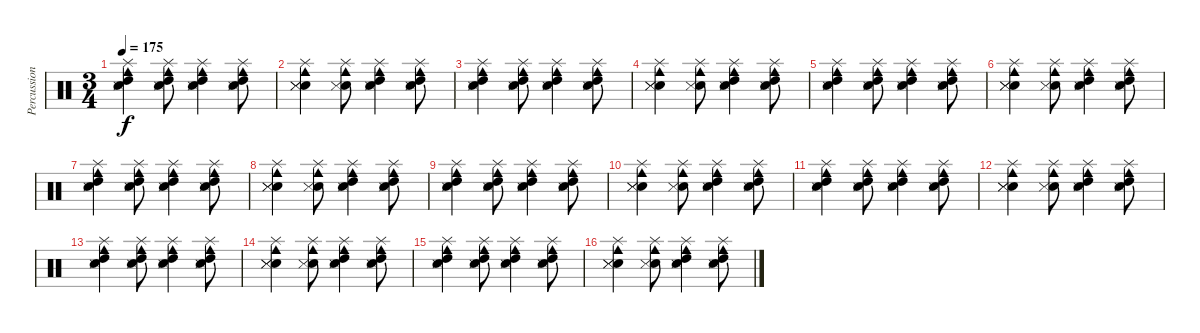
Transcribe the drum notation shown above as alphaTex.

\track ("Percussion" "Percussion") {instrument percussion}
\staff {score}
\articulation defaults
\ts (3 4)
\tempo 175
\clef neutral
\ks c
("Snare (hit) 2" "Snare (side stick) 3" "High Tom (hit)" "Splash (hit)" "Cowbell medium (hit)").4{dy f} ("Snare (hit) 2" "Snare (side stick) 3" "High Tom (hit)" "Splash (hit)" "Cowbell medium (hit)").8 ("Snare (hit) 2" "Snare (side stick) 3" "High Tom (hit)" "Splash (hit)" "Cowbell medium (hit)").4 ("Snare (hit) 2" "Snare (side stick) 3" "High Tom (hit)" "Splash (hit)" "Cowbell medium (hit)").8 |
("Snare (hit) 2" "Snare (side stick) 3" "Snare (side stick) 3" "Splash (hit)" "Cowbell medium (hit)").4 ("Snare (hit) 2" "Snare (side stick) 3" "Splash (hit)" "Cowbell medium (hit)").8 ("Snare (hit) 2" "Snare (side stick) 3" "High Tom (hit)" "Splash (hit)" "Cowbell medium (hit)").4 ("Snare (hit) 2" "Snare (side stick) 3" "High Tom (hit)" "Splash (hit)" "Cowbell medium (hit)").8 |
("Snare (hit) 2" "Snare (side stick) 3" "High Tom (hit)" "Splash (hit)" "Cowbell medium (hit)").4 ("Snare (hit) 2" "Snare (side stick) 3" "High Tom (hit)" "Splash (hit)" "Cowbell medium (hit)").8 ("Snare (hit) 2" "Snare (side stick) 3" "High Tom (hit)" "Splash (hit)" "Cowbell medium (hit)").4 ("Snare (hit) 2" "Snare (side stick) 3" "High Tom (hit)" "Splash (hit)" "Cowbell medium (hit)").8 |
("Snare (hit) 2" "Snare (side stick) 3" "Snare (side stick) 3" "Splash (hit)" "Cowbell medium (hit)").4 ("Snare (hit) 2" "Snare (side stick) 3" "Splash (hit)" "Cowbell medium (hit)").8 ("Snare (hit) 2" "Snare (side stick) 3" "High Tom (hit)" "Splash (hit)" "Cowbell medium (hit)").4 ("Snare (hit) 2" "Snare (side stick) 3" "High Tom (hit)" "Splash (hit)" "Cowbell medium (hit)").8 |
("Snare (hit) 2" "Snare (side stick) 3" "High Tom (hit)" "Splash (hit)" "Cowbell medium (hit)").4 ("Snare (hit) 2" "Snare (side stick) 3" "High Tom (hit)" "Splash (hit)" "Cowbell medium (hit)").8 ("Snare (hit) 2" "Snare (side stick) 3" "High Tom (hit)" "Splash (hit)" "Cowbell medium (hit)").4 ("Snare (hit) 2" "Snare (side stick) 3" "High Tom (hit)" "Splash (hit)" "Cowbell medium (hit)").8 |
("Snare (hit) 2" "Snare (side stick) 3" "Snare (side stick) 3" "Splash (hit)" "Cowbell medium (hit)").4 ("Snare (hit) 2" "Snare (side stick) 3" "Splash (hit)" "Cowbell medium (hit)").8 ("Snare (hit) 2" "Snare (side stick) 3" "High Tom (hit)" "Splash (hit)" "Cowbell medium (hit)").4 ("Snare (hit) 2" "Snare (side stick) 3" "High Tom (hit)" "Splash (hit)" "Cowbell medium (hit)").8 |
("Snare (hit) 2" "Snare (side stick) 3" "High Tom (hit)" "Splash (hit)" "Cowbell medium (hit)").4 ("Snare (hit) 2" "Snare (side stick) 3" "High Tom (hit)" "Splash (hit)" "Cowbell medium (hit)").8 ("Snare (hit) 2" "Snare (side stick) 3" "High Tom (hit)" "Splash (hit)" "Cowbell medium (hit)").4 ("Snare (hit) 2" "Snare (side stick) 3" "High Tom (hit)" "Splash (hit)" "Cowbell medium (hit)").8 |
("Snare (hit) 2" "Snare (side stick) 3" "Snare (side stick) 3" "Splash (hit)" "Cowbell medium (hit)").4 ("Snare (hit) 2" "Snare (side stick) 3" "Splash (hit)" "Cowbell medium (hit)").8 ("Snare (hit) 2" "Snare (side stick) 3" "High Tom (hit)" "Splash (hit)" "Cowbell medium (hit)").4 ("Snare (hit) 2" "Snare (side stick) 3" "High Tom (hit)" "Splash (hit)" "Cowbell medium (hit)").8 |
("Snare (hit) 2" "Snare (side stick) 3" "High Tom (hit)" "Splash (hit)" "Cowbell medium (hit)").4 ("Snare (hit) 2" "Snare (side stick) 3" "High Tom (hit)" "Splash (hit)" "Cowbell medium (hit)").8 ("Snare (hit) 2" "Snare (side stick) 3" "High Tom (hit)" "Splash (hit)" "Cowbell medium (hit)").4 ("Snare (hit) 2" "Snare (side stick) 3" "High Tom (hit)" "Splash (hit)" "Cowbell medium (hit)").8 |
("Snare (hit) 2" "Snare (side stick) 3" "Snare (side stick) 3" "Splash (hit)" "Cowbell medium (hit)").4 ("Snare (hit) 2" "Snare (side stick) 3" "Splash (hit)" "Cowbell medium (hit)").8 ("Snare (hit) 2" "Snare (side stick) 3" "High Tom (hit)" "Splash (hit)" "Cowbell medium (hit)").4 ("Snare (hit) 2" "Snare (side stick) 3" "High Tom (hit)" "Splash (hit)" "Cowbell medium (hit)").8 |
("Snare (hit) 2" "Snare (side stick) 3" "High Tom (hit)" "Splash (hit)" "Cowbell medium (hit)").4 ("Snare (hit) 2" "Snare (side stick) 3" "High Tom (hit)" "Splash (hit)" "Cowbell medium (hit)").8 ("Snare (hit) 2" "Snare (side stick) 3" "High Tom (hit)" "Splash (hit)" "Cowbell medium (hit)").4 ("Snare (hit) 2" "Snare (side stick) 3" "High Tom (hit)" "Splash (hit)" "Cowbell medium (hit)").8 |
("Snare (hit) 2" "Snare (side stick) 3" "Snare (side stick) 3" "Splash (hit)" "Cowbell medium (hit)").4 ("Snare (hit) 2" "Snare (side stick) 3" "Splash (hit)" "Cowbell medium (hit)").8 ("Snare (hit) 2" "Snare (side stick) 3" "High Tom (hit)" "Splash (hit)" "Cowbell medium (hit)").4 ("Snare (hit) 2" "Snare (side stick) 3" "High Tom (hit)" "Splash (hit)" "Cowbell medium (hit)").8 |
("Snare (hit) 2" "Snare (side stick) 3" "High Tom (hit)" "Splash (hit)" "Cowbell medium (hit)").4 ("Snare (hit) 2" "Snare (side stick) 3" "High Tom (hit)" "Splash (hit)" "Cowbell medium (hit)").8 ("Snare (hit) 2" "Snare (side stick) 3" "High Tom (hit)" "Splash (hit)" "Cowbell medium (hit)").4 ("Snare (hit) 2" "Snare (side stick) 3" "High Tom (hit)" "Splash (hit)" "Cowbell medium (hit)").8 |
("Snare (hit) 2" "Snare (side stick) 3" "Snare (side stick) 3" "Splash (hit)" "Cowbell medium (hit)").4 ("Snare (hit) 2" "Snare (side stick) 3" "Splash (hit)" "Cowbell medium (hit)").8 ("Snare (hit) 2" "Snare (side stick) 3" "High Tom (hit)" "Splash (hit)" "Cowbell medium (hit)").4 ("Snare (hit) 2" "Snare (side stick) 3" "High Tom (hit)" "Splash (hit)" "Cowbell medium (hit)").8 |
("Snare (hit) 2" "Snare (side stick) 3" "High Tom (hit)" "Splash (hit)" "Cowbell medium (hit)").4 ("Snare (hit) 2" "Snare (side stick) 3" "High Tom (hit)" "Splash (hit)" "Cowbell medium (hit)").8 ("Snare (hit) 2" "Snare (side stick) 3" "High Tom (hit)" "Splash (hit)" "Cowbell medium (hit)").4 ("Snare (hit) 2" "Snare (side stick) 3" "High Tom (hit)" "Splash (hit)" "Cowbell medium (hit)").8 |
("Snare (hit) 2" "Snare (side stick) 3" "Snare (side stick) 3" "Splash (hit)" "Cowbell medium (hit)").4 ("Snare (hit) 2" "Snare (side stick) 3" "Splash (hit)" "Cowbell medium (hit)").8 ("Snare (hit) 2" "Snare (side stick) 3" "High Tom (hit)" "Splash (hit)" "Cowbell medium (hit)").4 ("Snare (hit) 2" "Snare (side stick) 3" "High Tom (hit)" "Splash (hit)" "Cowbell medium (hit)").8
